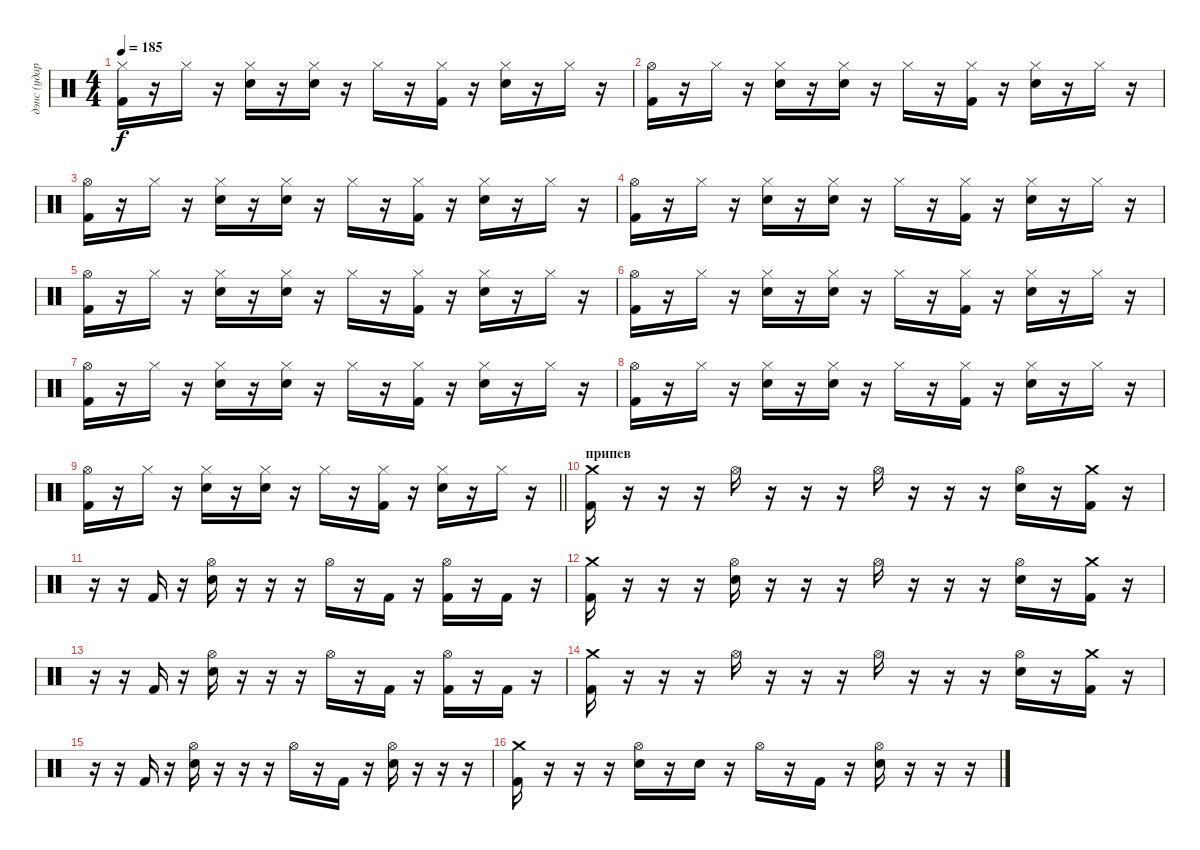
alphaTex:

\track ("дэнс (ударные)" "дэнс (удар") {instrument percussion}
\staff {score}
\articulation defaults
\ts (4 4)
\tempo 185
\clef neutral
\ks c
("Kick (hit) 2" "Hi-Hat (closed)").16{dy f} r.16 "Hi-Hat (closed)".16 r.16 ("Snare (hit) 2" "Hi-Hat (closed)").16 r.16 ("Snare (hit) 2" "Hi-Hat (closed)").16 r.16 "Hi-Hat (closed)".16 r.16 ("Kick (hit) 2" "Hi-Hat (closed)").16 r.16 ("Snare (hit) 2" "Hi-Hat (closed)").16 r.16 "Hi-Hat (closed)".16 r.16 |
("Kick (hit) 2" "Hi-Hat (open)").16 r.16 "Hi-Hat (closed)".16 r.16 ("Snare (hit) 2" "Hi-Hat (closed)").16 r.16 ("Snare (hit) 2" "Hi-Hat (closed)").16 r.16 "Hi-Hat (closed)".16 r.16 ("Kick (hit) 2" "Hi-Hat (closed)").16 r.16 ("Snare (hit) 2" "Hi-Hat (closed)").16 r.16 "Hi-Hat (closed)".16 r.16 |
("Kick (hit) 2" "Hi-Hat (open)").16 r.16 "Hi-Hat (closed)".16 r.16 ("Snare (hit) 2" "Hi-Hat (closed)").16 r.16 ("Snare (hit) 2" "Hi-Hat (closed)").16 r.16 "Hi-Hat (closed)".16 r.16 ("Kick (hit) 2" "Hi-Hat (closed)").16 r.16 ("Snare (hit) 2" "Hi-Hat (closed)").16 r.16 "Hi-Hat (closed)".16 r.16 |
("Kick (hit) 2" "Hi-Hat (open)").16 r.16 "Hi-Hat (closed)".16 r.16 ("Snare (hit) 2" "Hi-Hat (closed)").16 r.16 ("Snare (hit) 2" "Hi-Hat (closed)").16 r.16 "Hi-Hat (closed)".16 r.16 ("Kick (hit) 2" "Hi-Hat (closed)").16 r.16 ("Snare (hit) 2" "Hi-Hat (closed)").16 r.16 "Hi-Hat (closed)".16 r.16 |
("Kick (hit) 2" "Hi-Hat (open)").16 r.16 "Hi-Hat (closed)".16 r.16 ("Snare (hit) 2" "Hi-Hat (closed)").16 r.16 ("Snare (hit) 2" "Hi-Hat (closed)").16 r.16 "Hi-Hat (closed)".16 r.16 ("Kick (hit) 2" "Hi-Hat (closed)").16 r.16 ("Snare (hit) 2" "Hi-Hat (closed)").16 r.16 "Hi-Hat (closed)".16 r.16 |
("Kick (hit) 2" "Hi-Hat (open)").16 r.16 "Hi-Hat (closed)".16 r.16 ("Snare (hit) 2" "Hi-Hat (closed)").16 r.16 ("Snare (hit) 2" "Hi-Hat (closed)").16 r.16 "Hi-Hat (closed)".16 r.16 ("Kick (hit) 2" "Hi-Hat (closed)").16 r.16 ("Snare (hit) 2" "Hi-Hat (closed)").16 r.16 "Hi-Hat (closed)".16 r.16 |
("Kick (hit) 2" "Hi-Hat (open)").16 r.16 "Hi-Hat (closed)".16 r.16 ("Snare (hit) 2" "Hi-Hat (closed)").16 r.16 ("Snare (hit) 2" "Hi-Hat (closed)").16 r.16 "Hi-Hat (closed)".16 r.16 ("Kick (hit) 2" "Hi-Hat (closed)").16 r.16 ("Snare (hit) 2" "Hi-Hat (closed)").16 r.16 "Hi-Hat (closed)".16 r.16 |
("Kick (hit) 2" "Hi-Hat (open)").16 r.16 "Hi-Hat (closed)".16 r.16 ("Snare (hit) 2" "Hi-Hat (closed)").16 r.16 ("Snare (hit) 2" "Hi-Hat (closed)").16 r.16 "Hi-Hat (closed)".16 r.16 ("Kick (hit) 2" "Hi-Hat (closed)").16 r.16 ("Snare (hit) 2" "Hi-Hat (closed)").16 r.16 "Hi-Hat (closed)".16 r.16 |
\barLineRight lightlight
("Kick (hit) 2" "Hi-Hat (open)").16 r.16 "Hi-Hat (closed)".16 r.16 ("Snare (hit) 2" "Hi-Hat (closed)").16 r.16 ("Snare (hit) 2" "Hi-Hat (closed)").16 r.16 "Hi-Hat (closed)".16 r.16 ("Kick (hit) 2" "Hi-Hat (closed)").16 r.16 ("Snare (hit) 2" "Hi-Hat (closed)").16 r.16 "Hi-Hat (closed)".16 r.16 |
\section ("" "припев")
("Kick (hit) 2" "Crash medium (hit)").16 r.16 r.16 r.16 "Hi-Hat (open)".16 r.16 r.16 r.16 "Hi-Hat (open)".16 r.16 r.16 r.16 ("Snare (hit) 2" "Hi-Hat (open)").16 r.16 ("Kick (hit) 2" "Crash medium (hit)").16 r.16 |
r.16 r.16 "Kick (hit) 2".16 r.16 ("Snare (hit) 2" "Hi-Hat (open)").16 r.16 r.16 r.16 "Hi-Hat (open)".16 r.16 "Kick (hit) 2".16 r.16 ("Kick (hit) 2" "Hi-Hat (open)").16 r.16 "Kick (hit) 2".16 r.16 |
("Kick (hit) 2" "Crash medium (hit)").16 r.16 r.16 r.16 ("Snare (hit) 2" "Hi-Hat (open)").16 r.16 r.16 r.16 "Hi-Hat (open)".16 r.16 r.16 r.16 ("Snare (hit) 2" "Hi-Hat (open)").16 r.16 ("Kick (hit) 2" "Crash medium (hit)").16 r.16 |
r.16 r.16 "Kick (hit) 2".16 r.16 ("Snare (hit) 2" "Hi-Hat (open)").16 r.16 r.16 r.16 "Hi-Hat (open)".16 r.16 "Kick (hit) 2".16 r.16 ("Kick (hit) 2" "Hi-Hat (open)").16 r.16 "Kick (hit) 2".16 r.16 |
("Kick (hit) 2" "Crash medium (hit)").16 r.16 r.16 r.16 "Hi-Hat (open)".16 r.16 r.16 r.16 "Hi-Hat (open)".16 r.16 r.16 r.16 ("Snare (hit) 2" "Hi-Hat (open)").16 r.16 ("Kick (hit) 2" "Crash medium (hit)").16 r.16 |
r.16 r.16 "Kick (hit) 2".16 r.16 ("Snare (hit) 2" "Hi-Hat (open)").16 r.16 r.16 r.16 "Hi-Hat (open)".16 r.16 "Kick (hit) 2".16 r.16 ("Snare (hit) 2" "Hi-Hat (open)").16 r.16 r.16 r.16 |
("Kick (hit) 2" "Crash medium (hit)").16 r.16 r.16 r.16 ("Snare (hit) 2" "Hi-Hat (open)").16 r.16 "Snare (hit) 2".16 r.16 "Hi-Hat (open)".16 r.16 "Kick (hit) 2".16 r.16 ("Snare (hit) 2" "Hi-Hat (open)").16 r.16 r.16 r.16
